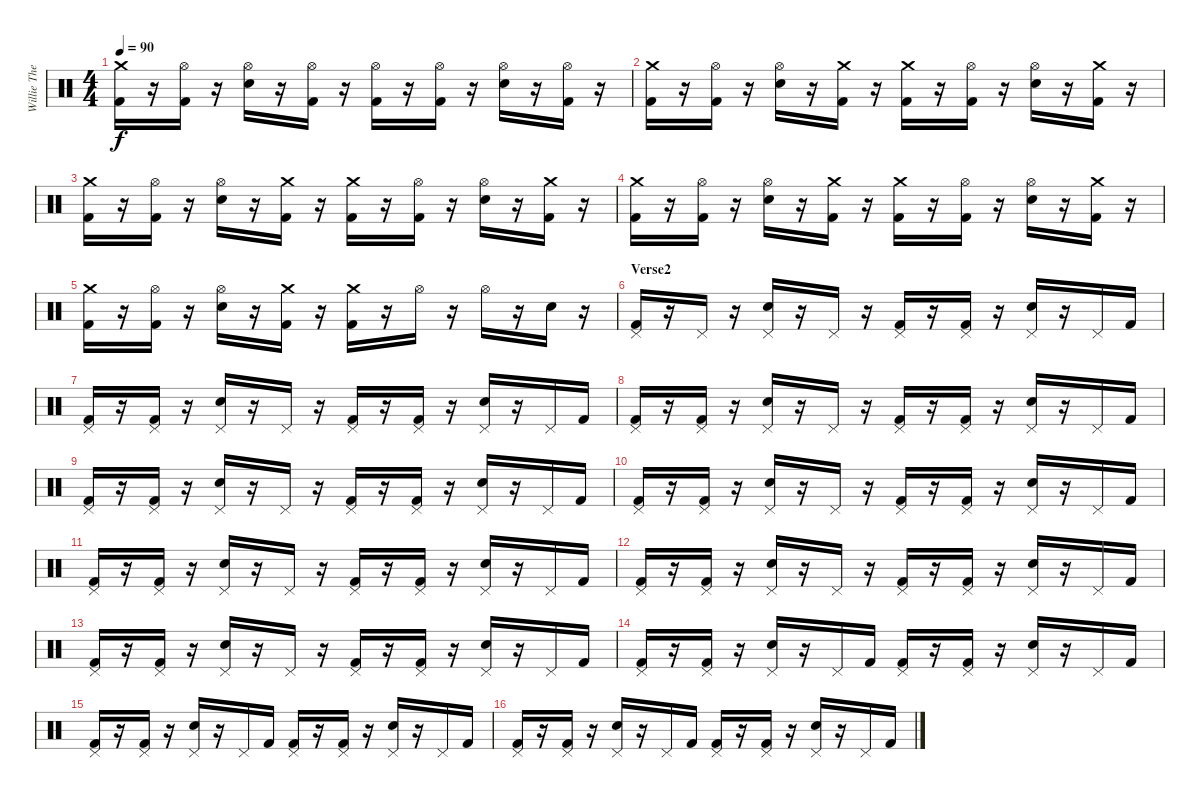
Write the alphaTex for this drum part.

\track ("Willie The New Guy" "Willie The") {instrument percussion}
\staff {score}
\articulation defaults
\ts (4 4)
\tempo 90
\clef neutral
\ks c
("Crash medium (hit)" "Kick (hit) 2").16{dy f} r.16 ("Hi-Hat (open)" "Kick (hit) 2").16 r.16 ("Hi-Hat (open)" "Snare (hit) 2").16 r.16 ("Hi-Hat (open)" "Kick (hit) 2").16 r.16 ("Hi-Hat (open)" "Kick (hit) 2").16 r.16 ("Hi-Hat (open)" "Kick (hit) 2").16 r.16 ("Hi-Hat (open)" "Snare (hit) 2").16 r.16 ("Hi-Hat (open)" "Kick (hit) 2").16 r.16 |
("Crash medium (hit)" "Kick (hit) 2").16 r.16 ("Hi-Hat (open)" "Kick (hit) 2").16 r.16 ("Hi-Hat (open)" "Snare (hit) 2").16 r.16 ("Crash medium (hit)" "Kick (hit) 2").16 r.16 ("Crash medium (hit)" "Kick (hit) 2").16 r.16 ("Hi-Hat (open)" "Kick (hit) 2").16 r.16 ("Hi-Hat (open)" "Snare (hit) 2").16 r.16 ("Crash medium (hit)" "Kick (hit) 2").16 r.16 |
("Crash medium (hit)" "Kick (hit) 2").16 r.16 ("Hi-Hat (open)" "Kick (hit) 2").16 r.16 ("Hi-Hat (open)" "Snare (hit) 2").16 r.16 ("Crash medium (hit)" "Kick (hit) 2").16 r.16 ("Crash medium (hit)" "Kick (hit) 2").16 r.16 ("Hi-Hat (open)" "Kick (hit) 2").16 r.16 ("Hi-Hat (open)" "Snare (hit) 2").16 r.16 ("Crash medium (hit)" "Kick (hit) 2").16 r.16 |
("Crash medium (hit)" "Kick (hit) 2").16 r.16 ("Hi-Hat (open)" "Kick (hit) 2").16 r.16 ("Hi-Hat (open)" "Snare (hit) 2").16 r.16 ("Crash medium (hit)" "Kick (hit) 2").16 r.16 ("Crash medium (hit)" "Kick (hit) 2").16 r.16 ("Hi-Hat (open)" "Kick (hit) 2").16 r.16 ("Hi-Hat (open)" "Snare (hit) 2").16 r.16 ("Crash medium (hit)" "Kick (hit) 2").16 r.16 |
("Crash medium (hit)" "Kick (hit) 2").16 r.16 ("Hi-Hat (open)" "Kick (hit) 2").16 r.16 ("Hi-Hat (open)" "Snare (hit) 2").16 r.16 ("Crash medium (hit)" "Kick (hit) 2").16 r.16 ("Crash medium (hit)" "Kick (hit) 2").16 r.16 "Hi-Hat (open)".16 r.16 "Hi-Hat (open)".16 r.16 "Electric Snare (hit)".16 r.16 |
\section ("" "Verse2")
("Pedal Hi-Hat (hit)" "Kick (hit) 2").16 r.16 "Pedal Hi-Hat (hit)".16 r.16 ("Pedal Hi-Hat (hit)" "Snare (hit) 2").16 r.16 "Pedal Hi-Hat (hit)".16 r.16 ("Pedal Hi-Hat (hit)" "Kick (hit) 2").16 r.16 ("Pedal Hi-Hat (hit)" "Kick (hit) 2").16 r.16 ("Pedal Hi-Hat (hit)" "Snare (hit) 2").16 r.16 "Pedal Hi-Hat (hit)".16 "Kick (hit) 2".16 |
("Pedal Hi-Hat (hit)" "Kick (hit) 2").16 r.16 ("Pedal Hi-Hat (hit)" "Kick (hit) 2").16 r.16 ("Pedal Hi-Hat (hit)" "Snare (hit) 2").16 r.16 "Pedal Hi-Hat (hit)".16 r.16 ("Pedal Hi-Hat (hit)" "Kick (hit) 2").16 r.16 ("Pedal Hi-Hat (hit)" "Kick (hit) 2").16 r.16 ("Pedal Hi-Hat (hit)" "Snare (hit) 2").16 r.16 "Pedal Hi-Hat (hit)".16 "Kick (hit) 2".16 |
("Pedal Hi-Hat (hit)" "Kick (hit) 2").16 r.16 ("Pedal Hi-Hat (hit)" "Kick (hit) 2").16 r.16 ("Pedal Hi-Hat (hit)" "Snare (hit) 2").16 r.16 "Pedal Hi-Hat (hit)".16 r.16 ("Pedal Hi-Hat (hit)" "Kick (hit) 2").16 r.16 ("Pedal Hi-Hat (hit)" "Kick (hit) 2").16 r.16 ("Pedal Hi-Hat (hit)" "Snare (hit) 2").16 r.16 "Pedal Hi-Hat (hit)".16 "Kick (hit) 2".16 |
("Pedal Hi-Hat (hit)" "Kick (hit) 2").16 r.16 ("Pedal Hi-Hat (hit)" "Kick (hit) 2").16 r.16 ("Pedal Hi-Hat (hit)" "Snare (hit) 2").16 r.16 "Pedal Hi-Hat (hit)".16 r.16 ("Pedal Hi-Hat (hit)" "Kick (hit) 2").16 r.16 ("Pedal Hi-Hat (hit)" "Kick (hit) 2").16 r.16 ("Pedal Hi-Hat (hit)" "Snare (hit) 2").16 r.16 "Pedal Hi-Hat (hit)".16 "Kick (hit) 2".16 |
("Pedal Hi-Hat (hit)" "Kick (hit) 2").16 r.16 ("Pedal Hi-Hat (hit)" "Kick (hit) 2").16 r.16 ("Pedal Hi-Hat (hit)" "Snare (hit) 2").16 r.16 "Pedal Hi-Hat (hit)".16 r.16 ("Pedal Hi-Hat (hit)" "Kick (hit) 2").16 r.16 ("Pedal Hi-Hat (hit)" "Kick (hit) 2").16 r.16 ("Pedal Hi-Hat (hit)" "Snare (hit) 2").16 r.16 "Pedal Hi-Hat (hit)".16 "Kick (hit) 2".16 |
("Pedal Hi-Hat (hit)" "Kick (hit) 2").16 r.16 ("Pedal Hi-Hat (hit)" "Kick (hit) 2").16 r.16 ("Pedal Hi-Hat (hit)" "Snare (hit) 2").16 r.16 "Pedal Hi-Hat (hit)".16 r.16 ("Pedal Hi-Hat (hit)" "Kick (hit) 2").16 r.16 ("Pedal Hi-Hat (hit)" "Kick (hit) 2").16 r.16 ("Pedal Hi-Hat (hit)" "Snare (hit) 2").16 r.16 "Pedal Hi-Hat (hit)".16 "Kick (hit) 2".16 |
("Pedal Hi-Hat (hit)" "Kick (hit) 2").16 r.16 ("Pedal Hi-Hat (hit)" "Kick (hit) 2").16 r.16 ("Pedal Hi-Hat (hit)" "Snare (hit) 2").16 r.16 "Pedal Hi-Hat (hit)".16 r.16 ("Pedal Hi-Hat (hit)" "Kick (hit) 2").16 r.16 ("Pedal Hi-Hat (hit)" "Kick (hit) 2").16 r.16 ("Pedal Hi-Hat (hit)" "Snare (hit) 2").16 r.16 "Pedal Hi-Hat (hit)".16 "Kick (hit) 2".16 |
("Pedal Hi-Hat (hit)" "Kick (hit) 2").16 r.16 ("Pedal Hi-Hat (hit)" "Kick (hit) 2").16 r.16 ("Pedal Hi-Hat (hit)" "Snare (hit) 2").16 r.16 "Pedal Hi-Hat (hit)".16 r.16 ("Pedal Hi-Hat (hit)" "Kick (hit) 2").16 r.16 ("Pedal Hi-Hat (hit)" "Kick (hit) 2").16 r.16 ("Pedal Hi-Hat (hit)" "Snare (hit) 2").16 r.16 "Pedal Hi-Hat (hit)".16 "Kick (hit) 2".16 |
("Pedal Hi-Hat (hit)" "Kick (hit) 2").16 r.16 ("Pedal Hi-Hat (hit)" "Kick (hit) 2").16 r.16 ("Pedal Hi-Hat (hit)" "Snare (hit) 2").16 r.16 "Pedal Hi-Hat (hit)".16 "Kick (hit) 2".16 ("Pedal Hi-Hat (hit)" "Kick (hit) 2").16 r.16 ("Pedal Hi-Hat (hit)" "Kick (hit) 2").16 r.16 ("Pedal Hi-Hat (hit)" "Snare (hit) 2").16 r.16 "Pedal Hi-Hat (hit)".16 "Kick (hit) 2".16 |
("Pedal Hi-Hat (hit)" "Kick (hit) 2").16 r.16 ("Pedal Hi-Hat (hit)" "Kick (hit) 2").16 r.16 ("Pedal Hi-Hat (hit)" "Snare (hit) 2").16 r.16 "Pedal Hi-Hat (hit)".16 "Kick (hit) 2".16 ("Pedal Hi-Hat (hit)" "Kick (hit) 2").16 r.16 ("Pedal Hi-Hat (hit)" "Kick (hit) 2").16 r.16 ("Pedal Hi-Hat (hit)" "Snare (hit) 2").16 r.16 "Pedal Hi-Hat (hit)".16 "Kick (hit) 2".16 |
("Pedal Hi-Hat (hit)" "Kick (hit) 2").16 r.16 ("Pedal Hi-Hat (hit)" "Kick (hit) 2").16 r.16 ("Pedal Hi-Hat (hit)" "Snare (hit) 2").16 r.16 "Pedal Hi-Hat (hit)".16 "Kick (hit) 2".16 ("Pedal Hi-Hat (hit)" "Kick (hit) 2").16 r.16 ("Pedal Hi-Hat (hit)" "Kick (hit) 2").16 r.16 ("Pedal Hi-Hat (hit)" "Snare (hit) 2").16 r.16 "Pedal Hi-Hat (hit)".16 "Kick (hit) 2".16
